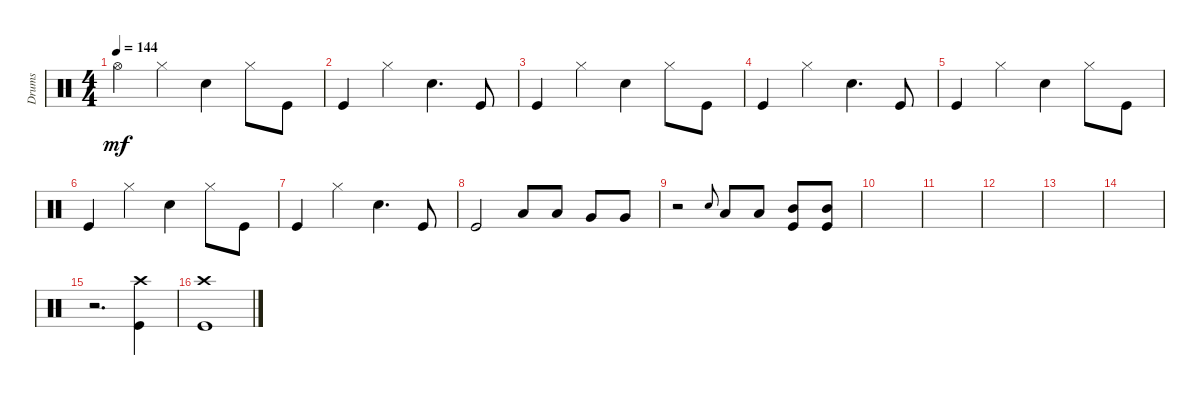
\track ("Drums" "Drums") {instrument percussion}
\staff {score}
\articulation defaults
\ts (4 4)
\tempo 144
\clef neutral
\ks c "Hi-Hat (open)".4{dy mf} "Hi-Hat (closed)".4 "Snare (hit) 2".4 "Hi-Hat (closed)".8 "Kick (hit)".8
|
"Kick (hit)".4 "Hi-Hat (closed)".4 "Snare (hit) 2".4{d} "Kick (hit)".8 |
"Kick (hit)".4 "Hi-Hat (closed)".4 "Snare (hit) 2".4 "Hi-Hat (closed)".8 "Kick (hit)".8 |
"Kick (hit)".4 "Hi-Hat (closed)".4 "Snare (hit) 2".4{d} "Kick (hit)".8 |
"Kick (hit)".4 "Hi-Hat (closed)".4 "Snare (hit) 2".4 "Hi-Hat (closed)".8 "Kick (hit)".8 |
"Kick (hit)".4 "Hi-Hat (closed)".4 "Snare (hit) 2".4 "Hi-Hat (closed)".8 "Kick (hit)".8 |
"Kick (hit)".4 "Hi-Hat (closed)".4 "Snare (hit) 2".4{d} "Kick (hit)".8 |
"Kick (hit)".2 "Low Tom (hit)".8 "Low Tom (hit)".8 "Very Low Tom (hit)".8 "Very Low Tom (hit)".8 |
r.2 "Snare (hit)".8{gr onbeat} "Low Tom (hit)".8 "Low Tom (hit)".8 ("Mid Tom (hit)" "Kick (hit)").8 ("Mid Tom (hit)" "Kick (hit)").8 |
|
|
|
|
|
r.2{d} ("Kick (hit)" "Crash high (hit)").4 |
("Kick (hit)" "Crash high (hit)").1
